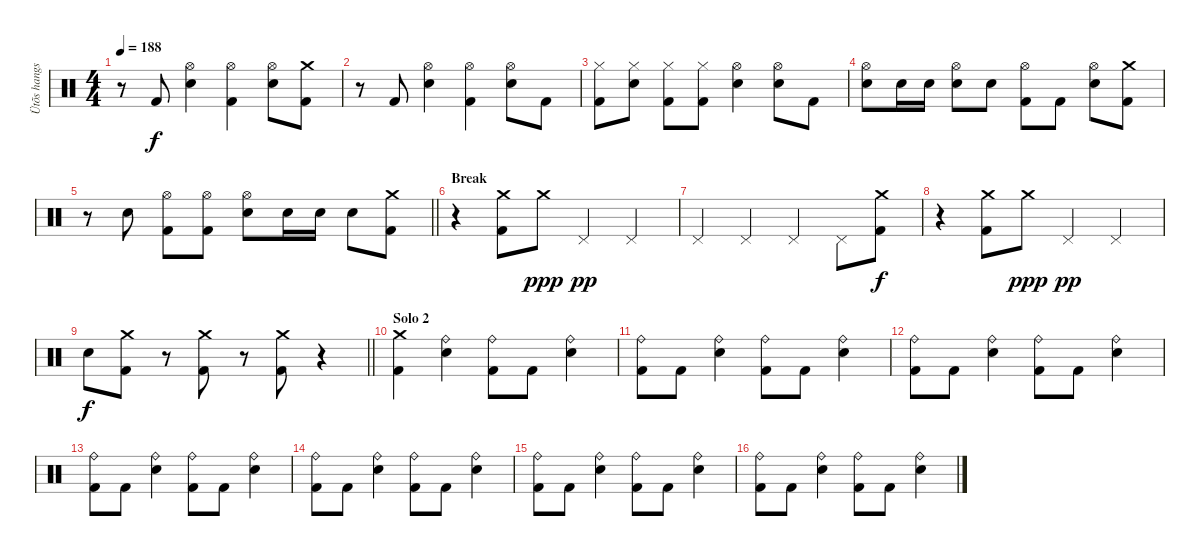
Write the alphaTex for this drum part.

\track ("Ütõs hangszer" "Ütõs hangs") {instrument percussion}
\staff {score}
\articulation defaults
\ts (4 4)
\tempo 188
\clef neutral
\ks c
r.8{dy f} "Kick (hit) 2".8 ("Hi-Hat (open)" "Electric Snare (hit)").4 ("Hi-Hat (open)" "Kick (hit) 2").4 ("Hi-Hat (open)" "Electric Snare (hit)").8 ("Crash medium (hit)" "Kick (hit) 2").8 |
r.8 "Kick (hit) 2".8 ("Hi-Hat (open)" "Electric Snare (hit)").4 ("Hi-Hat (open)" "Kick (hit) 2").4 ("Hi-Hat (open)" "Electric Snare (hit)").8 "Kick (hit) 2".8 |
("Hi-Hat (closed)" "Kick (hit) 2").8 ("Hi-Hat (closed)" "Electric Snare (hit)").8 ("Hi-Hat (closed)" "Kick (hit) 2").8 ("Hi-Hat (closed)" "Kick (hit) 2").8 ("Hi-Hat (open)" "Electric Snare (hit)").4 ("Hi-Hat (open)" "Electric Snare (hit)").8 "Kick (hit) 2".8 |
("Hi-Hat (open)" "Electric Snare (hit)").8 "Electric Snare (hit)".16 "Electric Snare (hit)".16 ("Hi-Hat (open)" "Electric Snare (hit)").8 "Electric Snare (hit)".8 ("Hi-Hat (open)" "Kick (hit) 2").8 "Kick (hit) 2".8 ("Hi-Hat (open)" "Electric Snare (hit)").8 ("Crash medium (hit)" "Kick (hit) 2").8 |
\barLineRight lightlight
r.8 "Electric Snare (hit)".8 ("Hi-Hat (open)" "Kick (hit) 2").8 ("Hi-Hat (open)" "Kick (hit) 2").8 ("Hi-Hat (open)" "Electric Snare (hit)").8 "Electric Snare (hit)".16 "Electric Snare (hit)".16 "Electric Snare (hit)".8 ("Crash medium (hit)" "Kick (hit) 2").8 |
\section ("" "Break")
r.4 ("Crash medium (hit)" "Kick (hit) 2").8{volume 16} "Crash medium (hit)".8{dy ppp volume 0} "Pedal Hi-Hat (hit)".4{dy pp volume 16} "Pedal Hi-Hat (hit)".4 |
"Pedal Hi-Hat (hit)".4 "Pedal Hi-Hat (hit)".4 "Pedal Hi-Hat (hit)".4 "Pedal Hi-Hat (hit)".8 ("Crash medium (hit)" "Kick (hit) 2").8{dy f} |
r.4 ("Crash medium (hit)" "Kick (hit) 2").8{volume 16} "Crash medium (hit)".8{dy ppp volume 0} "Pedal Hi-Hat (hit)".4{dy pp volume 16} "Pedal Hi-Hat (hit)".4 |
\barLineRight lightlight "Electric Snare (hit)".8{dy f}
("Crash medium (hit)" "Kick (hit) 2").8 r.8{volume 0} ("Crash medium (hit)" "Kick (hit) 2").8{volume 16} r.8{volume 0} ("Crash medium (hit)" "Kick (hit) 2").8{volume 16} r.4{volume 0} |
\section ("" "Solo 2")
("Crash medium (hit)" "Kick (hit) 2").4{volume 16} ("Ride (bell)" "Electric Snare (hit)").4 ("Ride (bell)" "Kick (hit) 2").8 "Kick (hit) 2".8 ("Ride (bell)" "Electric Snare (hit)").4 |
("Ride (bell)" "Kick (hit) 2").8 "Kick (hit) 2".8 ("Ride (bell)" "Electric Snare (hit)").4 ("Ride (bell)" "Kick (hit) 2").8 "Kick (hit) 2".8 ("Ride (bell)" "Electric Snare (hit)").4 |
("Ride (bell)" "Kick (hit) 2").8 "Kick (hit) 2".8 ("Ride (bell)" "Electric Snare (hit)").4 ("Ride (bell)" "Kick (hit) 2").8 "Kick (hit) 2".8 ("Ride (bell)" "Electric Snare (hit)").4 |
("Ride (bell)" "Kick (hit) 2").8 "Kick (hit) 2".8 ("Ride (bell)" "Electric Snare (hit)").4 ("Ride (bell)" "Kick (hit) 2").8 "Kick (hit) 2".8 ("Ride (bell)" "Electric Snare (hit)").4 |
("Ride (bell)" "Kick (hit) 2").8 "Kick (hit) 2".8 ("Ride (bell)" "Electric Snare (hit)").4 ("Ride (bell)" "Kick (hit) 2").8 "Kick (hit) 2".8 ("Ride (bell)" "Electric Snare (hit)").4 |
("Ride (bell)" "Kick (hit) 2").8 "Kick (hit) 2".8 ("Ride (bell)" "Electric Snare (hit)").4 ("Ride (bell)" "Kick (hit) 2").8 "Kick (hit) 2".8 ("Ride (bell)" "Electric Snare (hit)").4 |
("Ride (bell)" "Kick (hit) 2").8 "Kick (hit) 2".8 ("Ride (bell)" "Electric Snare (hit)").4 ("Ride (bell)" "Kick (hit) 2").8 "Kick (hit) 2".8 ("Ride (bell)" "Electric Snare (hit)").4
